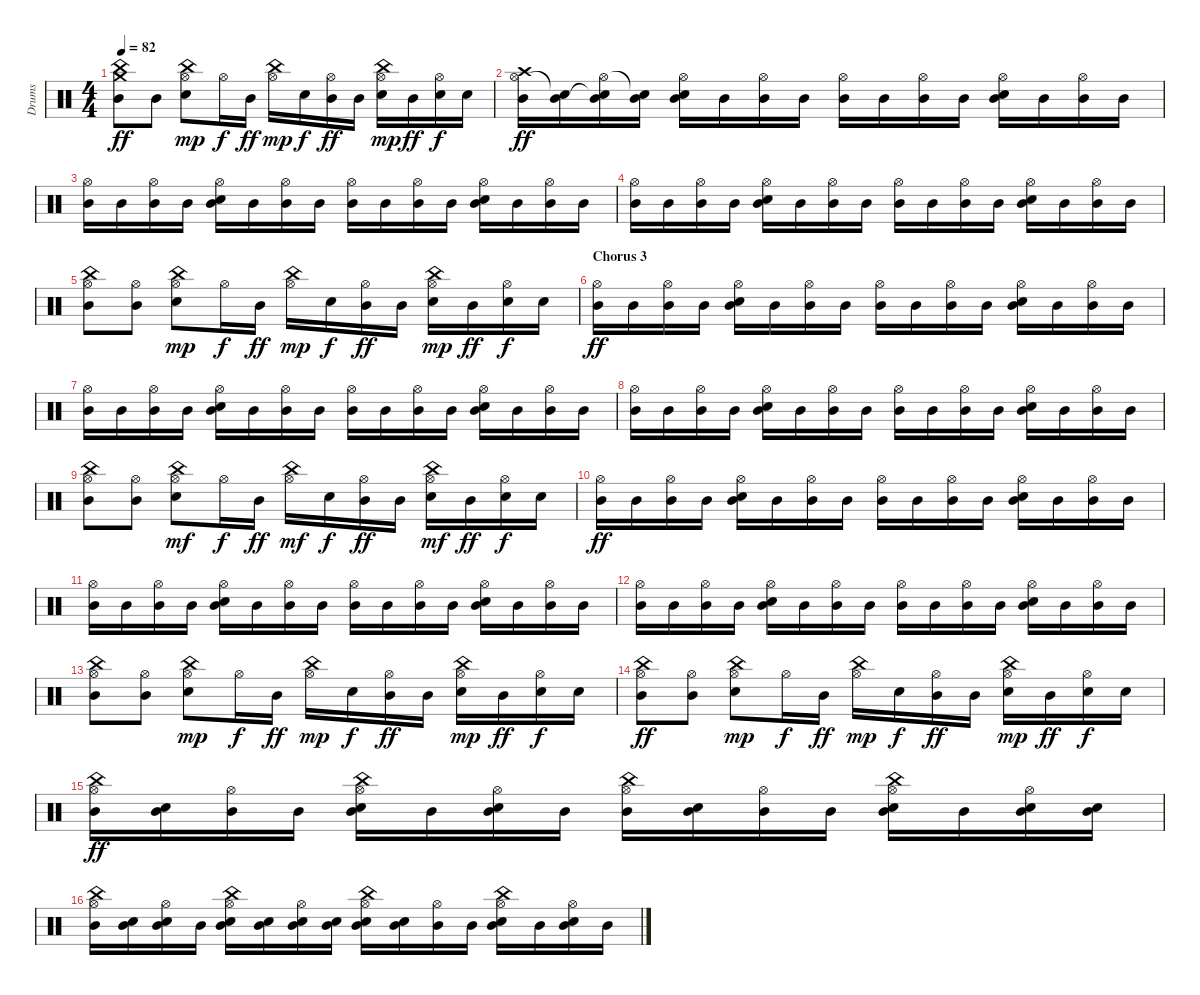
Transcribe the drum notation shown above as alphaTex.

\track ("Drums" "Drums") {instrument percussion}
\staff {score}
\articulation defaults
\ts (4 4)
\tempo 82
\clef neutral
\ks c
("Crash medium (hit)" "China (hit)" "Mid Tom (hit)").8{dy ff} "Mid Tom (hit)".8 ("Hi-Hat (open)" "China (hit)" "Electric Snare (hit)").8{dy mp} "Hi-Hat (open)".16{dy f} "Mid Tom (hit)".16{dy ff} ("Hi-Hat (open)" "China (hit)").16{dy mp} "Electric Snare (hit)".16{dy f} ("Hi-Hat (open)" "Mid Tom (hit)").16{dy ff} "Mid Tom (hit)".16 ("Hi-Hat (open)" "China (hit)" "Electric Snare (hit)").16{dy mp} "Mid Tom (hit)".16{dy ff} ("Hi-Hat (open)" "Electric Snare (hit)").16{dy f} "Electric Snare (hit)".16 |
("Hi-Hat (open)" "Crash high (hit)" "Mid Tom (hit)").16{dy ff} ("Snare (hit)"{t} "Mid Tom (hit)").16 ("Hi-Hat (open)" "Snare (hit)"{t} "Mid Tom (hit)").16 ("Snare (hit)"{t} "Mid Tom (hit)").16 ("Hi-Hat (open)" "Electric Snare (hit)" "Mid Tom (hit)").16 "Mid Tom (hit)".16 ("Hi-Hat (open)" "Mid Tom (hit)").16 "Mid Tom (hit)".16 ("Hi-Hat (open)" "Mid Tom (hit)").16 "Mid Tom (hit)".16 ("Hi-Hat (open)" "Mid Tom (hit)").16 "Mid Tom (hit)".16 ("Hi-Hat (open)" "Electric Snare (hit)" "Mid Tom (hit)").16 "Mid Tom (hit)".16 ("Hi-Hat (open)" "Mid Tom (hit)").16 "Mid Tom (hit)".16 |
("Hi-Hat (open)" "Mid Tom (hit)").16 "Mid Tom (hit)".16 ("Hi-Hat (open)" "Mid Tom (hit)").16 "Mid Tom (hit)".16 ("Hi-Hat (open)" "Electric Snare (hit)" "Mid Tom (hit)").16 "Mid Tom (hit)".16 ("Hi-Hat (open)" "Mid Tom (hit)").16 "Mid Tom (hit)".16 ("Hi-Hat (open)" "Mid Tom (hit)").16 "Mid Tom (hit)".16 ("Hi-Hat (open)" "Mid Tom (hit)").16 "Mid Tom (hit)".16 ("Hi-Hat (open)" "Electric Snare (hit)" "Mid Tom (hit)").16 "Mid Tom (hit)".16 ("Hi-Hat (open)" "Mid Tom (hit)").16 "Mid Tom (hit)".16 |
("Hi-Hat (open)" "Mid Tom (hit)").16 "Mid Tom (hit)".16 ("Hi-Hat (open)" "Mid Tom (hit)").16 "Mid Tom (hit)".16 ("Hi-Hat (open)" "Electric Snare (hit)" "Mid Tom (hit)").16 "Mid Tom (hit)".16 ("Hi-Hat (open)" "Mid Tom (hit)").16 "Mid Tom (hit)".16 ("Hi-Hat (open)" "Mid Tom (hit)").16 "Mid Tom (hit)".16 ("Hi-Hat (open)" "Mid Tom (hit)").16 "Mid Tom (hit)".16 ("Hi-Hat (open)" "Electric Snare (hit)" "Mid Tom (hit)").16 "Mid Tom (hit)".16 ("Hi-Hat (open)" "Mid Tom (hit)").16 "Mid Tom (hit)".16 |
("Hi-Hat (open)" "China (hit)" "Mid Tom (hit)").8 ("Hi-Hat (open)" "Mid Tom (hit)").8 ("Hi-Hat (open)" "China (hit)" "Electric Snare (hit)").8{dy mp} "Hi-Hat (open)".16{dy f} "Mid Tom (hit)".16{dy ff} ("Hi-Hat (open)" "China (hit)").16{dy mp} "Electric Snare (hit)".16{dy f} ("Hi-Hat (open)" "Mid Tom (hit)").16{dy ff} "Mid Tom (hit)".16 ("Hi-Hat (open)" "China (hit)" "Electric Snare (hit)").16{dy mp} "Mid Tom (hit)".16{dy ff} ("Hi-Hat (open)" "Electric Snare (hit)").16{dy f} "Electric Snare (hit)".16 |
\section ("" "Chorus 3")
("Hi-Hat (open)" "Mid Tom (hit)").16{dy ff} "Mid Tom (hit)".16 ("Hi-Hat (open)" "Mid Tom (hit)").16 "Mid Tom (hit)".16 ("Hi-Hat (open)" "Electric Snare (hit)" "Mid Tom (hit)").16 "Mid Tom (hit)".16 ("Hi-Hat (open)" "Mid Tom (hit)").16 "Mid Tom (hit)".16 ("Hi-Hat (open)" "Mid Tom (hit)").16 "Mid Tom (hit)".16 ("Hi-Hat (open)" "Mid Tom (hit)").16 "Mid Tom (hit)".16 ("Hi-Hat (open)" "Electric Snare (hit)" "Mid Tom (hit)").16 "Mid Tom (hit)".16 ("Hi-Hat (open)" "Mid Tom (hit)").16 "Mid Tom (hit)".16 |
("Hi-Hat (open)" "Mid Tom (hit)").16 "Mid Tom (hit)".16 ("Hi-Hat (open)" "Mid Tom (hit)").16 "Mid Tom (hit)".16 ("Hi-Hat (open)" "Electric Snare (hit)" "Mid Tom (hit)").16 "Mid Tom (hit)".16 ("Hi-Hat (open)" "Mid Tom (hit)").16 "Mid Tom (hit)".16 ("Hi-Hat (open)" "Mid Tom (hit)").16 "Mid Tom (hit)".16 ("Hi-Hat (open)" "Mid Tom (hit)").16 "Mid Tom (hit)".16 ("Hi-Hat (open)" "Electric Snare (hit)" "Mid Tom (hit)").16 "Mid Tom (hit)".16 ("Hi-Hat (open)" "Mid Tom (hit)").16 "Mid Tom (hit)".16 |
("Hi-Hat (open)" "Mid Tom (hit)").16 "Mid Tom (hit)".16 ("Hi-Hat (open)" "Mid Tom (hit)").16 "Mid Tom (hit)".16 ("Hi-Hat (open)" "Electric Snare (hit)" "Mid Tom (hit)").16 "Mid Tom (hit)".16 ("Hi-Hat (open)" "Mid Tom (hit)").16 "Mid Tom (hit)".16 ("Hi-Hat (open)" "Mid Tom (hit)").16 "Mid Tom (hit)".16 ("Hi-Hat (open)" "Mid Tom (hit)").16 "Mid Tom (hit)".16 ("Hi-Hat (open)" "Electric Snare (hit)" "Mid Tom (hit)").16 "Mid Tom (hit)".16 ("Hi-Hat (open)" "Mid Tom (hit)").16 "Mid Tom (hit)".16 |
("Hi-Hat (open)" "China (hit)" "Mid Tom (hit)").8 ("Hi-Hat (open)" "Mid Tom (hit)").8 ("Hi-Hat (open)" "China (hit)" "Electric Snare (hit)").8{dy mf} "Hi-Hat (open)".16{dy f} "Mid Tom (hit)".16{dy ff} ("Hi-Hat (open)" "China (hit)").16{dy mf} "Electric Snare (hit)".16{dy f} ("Hi-Hat (open)" "Mid Tom (hit)").16{dy ff} "Mid Tom (hit)".16 ("Hi-Hat (open)" "China (hit)" "Electric Snare (hit)").16{dy mf} "Mid Tom (hit)".16{dy ff} ("Hi-Hat (open)" "Electric Snare (hit)").16{dy f} "Electric Snare (hit)".16 |
("Hi-Hat (open)" "Mid Tom (hit)").16{dy ff} "Mid Tom (hit)".16 ("Hi-Hat (open)" "Mid Tom (hit)").16 "Mid Tom (hit)".16 ("Hi-Hat (open)" "Electric Snare (hit)" "Mid Tom (hit)").16 "Mid Tom (hit)".16 ("Hi-Hat (open)" "Mid Tom (hit)").16 "Mid Tom (hit)".16 ("Hi-Hat (open)" "Mid Tom (hit)").16 "Mid Tom (hit)".16 ("Hi-Hat (open)" "Mid Tom (hit)").16 "Mid Tom (hit)".16 ("Hi-Hat (open)" "Electric Snare (hit)" "Mid Tom (hit)").16 "Mid Tom (hit)".16 ("Hi-Hat (open)" "Mid Tom (hit)").16 "Mid Tom (hit)".16 |
("Hi-Hat (open)" "Mid Tom (hit)").16 "Mid Tom (hit)".16 ("Hi-Hat (open)" "Mid Tom (hit)").16 "Mid Tom (hit)".16 ("Hi-Hat (open)" "Electric Snare (hit)" "Mid Tom (hit)").16 "Mid Tom (hit)".16 ("Hi-Hat (open)" "Mid Tom (hit)").16 "Mid Tom (hit)".16 ("Hi-Hat (open)" "Mid Tom (hit)").16 "Mid Tom (hit)".16 ("Hi-Hat (open)" "Mid Tom (hit)").16 "Mid Tom (hit)".16 ("Hi-Hat (open)" "Electric Snare (hit)" "Mid Tom (hit)").16 "Mid Tom (hit)".16 ("Hi-Hat (open)" "Mid Tom (hit)").16 "Mid Tom (hit)".16 |
("Hi-Hat (open)" "Mid Tom (hit)").16 "Mid Tom (hit)".16 ("Hi-Hat (open)" "Mid Tom (hit)").16 "Mid Tom (hit)".16 ("Hi-Hat (open)" "Electric Snare (hit)" "Mid Tom (hit)").16 "Mid Tom (hit)".16 ("Hi-Hat (open)" "Mid Tom (hit)").16 "Mid Tom (hit)".16 ("Hi-Hat (open)" "Mid Tom (hit)").16 "Mid Tom (hit)".16 ("Hi-Hat (open)" "Mid Tom (hit)").16 "Mid Tom (hit)".16 ("Hi-Hat (open)" "Electric Snare (hit)" "Mid Tom (hit)").16 "Mid Tom (hit)".16 ("Hi-Hat (open)" "Mid Tom (hit)").16 "Mid Tom (hit)".16 |
("Hi-Hat (open)" "China (hit)" "Mid Tom (hit)").8 ("Hi-Hat (open)" "Mid Tom (hit)").8 ("Hi-Hat (open)" "China (hit)" "Electric Snare (hit)").8{dy mp} "Hi-Hat (open)".16{dy f} "Mid Tom (hit)".16{dy ff} ("Hi-Hat (open)" "China (hit)").16{dy mp} "Electric Snare (hit)".16{dy f} ("Hi-Hat (open)" "Mid Tom (hit)").16{dy ff} "Mid Tom (hit)".16 ("Hi-Hat (open)" "China (hit)" "Electric Snare (hit)").16{dy mp} "Mid Tom (hit)".16{dy ff} ("Hi-Hat (open)" "Electric Snare (hit)").16{dy f} "Electric Snare (hit)".16 |
("Hi-Hat (open)" "China (hit)" "Mid Tom (hit)").8{dy ff} ("Hi-Hat (open)" "Mid Tom (hit)").8 ("Hi-Hat (open)" "China (hit)" "Electric Snare (hit)").8{dy mp} "Hi-Hat (open)".16{dy f} "Mid Tom (hit)".16{dy ff} ("Hi-Hat (open)" "China (hit)").16{dy mp} "Electric Snare (hit)".16{dy f} ("Hi-Hat (open)" "Mid Tom (hit)").16{dy ff} "Mid Tom (hit)".16 ("Hi-Hat (open)" "China (hit)" "Electric Snare (hit)").16{dy mp} "Mid Tom (hit)".16{dy ff} ("Hi-Hat (open)" "Electric Snare (hit)").16{dy f} "Electric Snare (hit)".16 |
("Hi-Hat (open)" "China (hit)" "Mid Tom (hit)").16{dy ff} ("Electric Snare (hit)" "Mid Tom (hit)").16 ("Hi-Hat (open)" "Mid Tom (hit)").16 "Mid Tom (hit)".16 ("Hi-Hat (open)" "China (hit)" "Electric Snare (hit)" "Mid Tom (hit)").16 "Mid Tom (hit)".16 ("Hi-Hat (open)" "Electric Snare (hit)" "Mid Tom (hit)").16 "Mid Tom (hit)".16 ("Hi-Hat (open)" "China (hit)" "Mid Tom (hit)").16 ("Electric Snare (hit)" "Mid Tom (hit)").16 ("Hi-Hat (open)" "Mid Tom (hit)").16 "Mid Tom (hit)".16 ("Hi-Hat (open)" "China (hit)" "Electric Snare (hit)" "Mid Tom (hit)").16 "Mid Tom (hit)".16 ("Hi-Hat (open)" "Electric Snare (hit)" "Mid Tom (hit)").16 ("Electric Snare (hit)" "Mid Tom (hit)").16 |
("Hi-Hat (open)" "China (hit)" "Mid Tom (hit)").16 ("Electric Snare (hit)" "Mid Tom (hit)").16 ("Hi-Hat (open)" "Electric Snare (hit)" "Mid Tom (hit)").16 "Mid Tom (hit)".16 ("Hi-Hat (open)" "China (hit)" "Electric Snare (hit)" "Mid Tom (hit)").16 ("Electric Snare (hit)" "Mid Tom (hit)").16 ("Hi-Hat (open)" "Electric Snare (hit)" "Mid Tom (hit)").16 ("Electric Snare (hit)" "Mid Tom (hit)").16 ("Hi-Hat (open)" "China (hit)" "Electric Snare (hit)" "Mid Tom (hit)").16 ("Electric Snare (hit)" "Mid Tom (hit)").16 ("Hi-Hat (open)" "Mid Tom (hit)").16 "Mid Tom (hit)".16 ("Hi-Hat (open)" "China (hit)" "Electric Snare (hit)" "Mid Tom (hit)").16 "Mid Tom (hit)".16 ("Hi-Hat (open)" "Electric Snare (hit)" "Mid Tom (hit)").16 "Mid Tom (hit)".16
